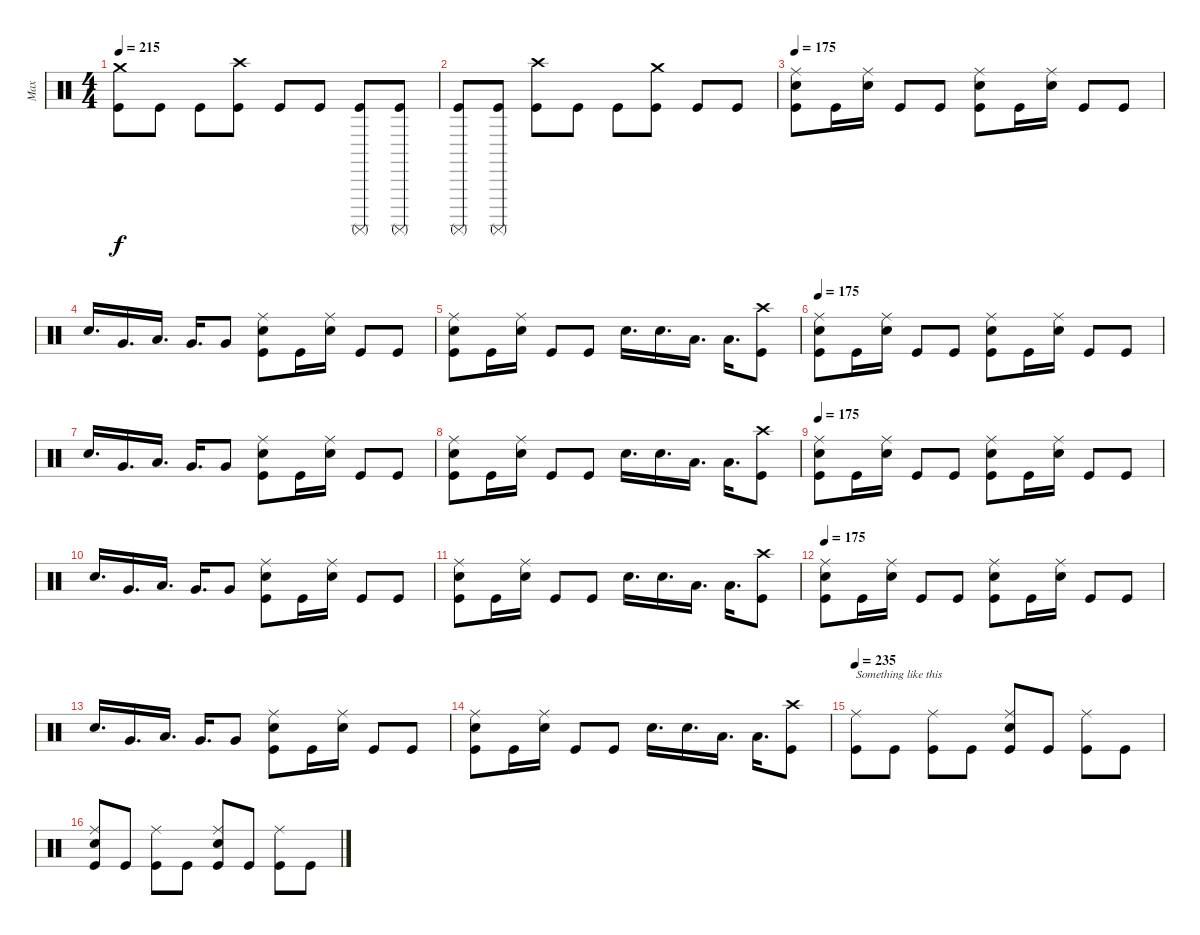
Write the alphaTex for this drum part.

\track ("Max" "Max") {instrument percussion}
\staff {score}
\articulation defaults
\ts (4 4)
\tempo 215
\clef neutral
\ks c
("Crash medium (hit)" "Kick (hit)").8{dy f} "Kick (hit)".8 "Kick (hit)".8 ("Crash high (hit)" "Kick (hit)").8 "Kick (hit)".8 "Kick (hit)".8 ("Surdo (mute)" "Kick (hit)").8 ("Surdo (mute)" "Kick (hit)").8 |
("Surdo (mute)" "Kick (hit)").8 ("Surdo (mute)" "Kick (hit)").8 ("Crash high (hit)" "Kick (hit)").8 "Kick (hit)".8 "Kick (hit)".8 ("Crash medium (hit)" "Kick (hit)").8 "Kick (hit)".8 "Kick (hit)".8 |
\tempo 175
("Ride (middle)" "Electric Snare (hit)" "Kick (hit)").8 "Kick (hit)".16 ("Ride (middle)" "Electric Snare (hit)").16 "Kick (hit)".8 "Kick (hit)".8 ("Ride (middle)" "Electric Snare (hit)" "Kick (hit)").8 "Kick (hit)".16 ("Ride (middle)" "Electric Snare (hit)").16 "Kick (hit)".8 "Kick (hit)".8 |
"Electric Snare (hit)".16{d} "Very Low Tom (hit)".16{d} "Low Tom (hit)".16{d} "Very Low Tom (hit)".16{d} "Very Low Tom (hit)".8 ("Ride (middle)" "Electric Snare (hit)" "Kick (hit)").8 "Kick (hit)".16 ("Ride (middle)" "Electric Snare (hit)").16 "Kick (hit)".8 "Kick (hit)".8 |
("Ride (middle)" "Electric Snare (hit)" "Kick (hit)").8 "Kick (hit)".16 ("Ride (middle)" "Electric Snare (hit)").16 "Kick (hit)".8 "Kick (hit)".8 "Electric Snare (hit)".16{d} "Electric Snare (hit)".16{d} "Low Tom (hit)".16{d} "Low Tom (hit)".16{d} ("Crash high (hit)" "Kick (hit)").8 |
\tempo 175
("Ride (middle)" "Electric Snare (hit)" "Kick (hit)").8 "Kick (hit)".16 ("Ride (middle)" "Electric Snare (hit)").16 "Kick (hit)".8 "Kick (hit)".8 ("Ride (middle)" "Electric Snare (hit)" "Kick (hit)").8 "Kick (hit)".16 ("Ride (middle)" "Electric Snare (hit)").16 "Kick (hit)".8 "Kick (hit)".8 |
"Electric Snare (hit)".16{d} "Very Low Tom (hit)".16{d} "Low Tom (hit)".16{d} "Very Low Tom (hit)".16{d} "Very Low Tom (hit)".8 ("Ride (middle)" "Electric Snare (hit)" "Kick (hit)").8 "Kick (hit)".16 ("Ride (middle)" "Electric Snare (hit)").16 "Kick (hit)".8 "Kick (hit)".8 |
("Ride (middle)" "Electric Snare (hit)" "Kick (hit)").8 "Kick (hit)".16 ("Ride (middle)" "Electric Snare (hit)").16 "Kick (hit)".8 "Kick (hit)".8 "Electric Snare (hit)".16{d} "Electric Snare (hit)".16{d} "Low Tom (hit)".16{d} "Low Tom (hit)".16{d} ("Crash high (hit)" "Kick (hit)").8 |
\tempo 175
("Ride (middle)" "Electric Snare (hit)" "Kick (hit)").8 "Kick (hit)".16 ("Ride (middle)" "Electric Snare (hit)").16 "Kick (hit)".8 "Kick (hit)".8 ("Ride (middle)" "Electric Snare (hit)" "Kick (hit)").8 "Kick (hit)".16 ("Ride (middle)" "Electric Snare (hit)").16 "Kick (hit)".8 "Kick (hit)".8 |
"Electric Snare (hit)".16{d} "Very Low Tom (hit)".16{d} "Low Tom (hit)".16{d} "Very Low Tom (hit)".16{d} "Very Low Tom (hit)".8 ("Ride (middle)" "Electric Snare (hit)" "Kick (hit)").8 "Kick (hit)".16 ("Ride (middle)" "Electric Snare (hit)").16 "Kick (hit)".8 "Kick (hit)".8 |
("Ride (middle)" "Electric Snare (hit)" "Kick (hit)").8 "Kick (hit)".16 ("Ride (middle)" "Electric Snare (hit)").16 "Kick (hit)".8 "Kick (hit)".8 "Electric Snare (hit)".16{d} "Electric Snare (hit)".16{d} "Low Tom (hit)".16{d} "Low Tom (hit)".16{d} ("Crash high (hit)" "Kick (hit)").8 |
\tempo 175
("Ride (middle)" "Electric Snare (hit)" "Kick (hit)").8 "Kick (hit)".16 ("Ride (middle)" "Electric Snare (hit)").16 "Kick (hit)".8 "Kick (hit)".8 ("Ride (middle)" "Electric Snare (hit)" "Kick (hit)").8 "Kick (hit)".16 ("Ride (middle)" "Electric Snare (hit)").16 "Kick (hit)".8 "Kick (hit)".8 |
"Electric Snare (hit)".16{d} "Very Low Tom (hit)".16{d} "Low Tom (hit)".16{d} "Very Low Tom (hit)".16{d} "Very Low Tom (hit)".8 ("Ride (middle)" "Electric Snare (hit)" "Kick (hit)").8 "Kick (hit)".16 ("Ride (middle)" "Electric Snare (hit)").16 "Kick (hit)".8 "Kick (hit)".8 |
("Ride (middle)" "Electric Snare (hit)" "Kick (hit)").8 "Kick (hit)".16 ("Ride (middle)" "Electric Snare (hit)").16 "Kick (hit)".8 "Kick (hit)".8 "Electric Snare (hit)".16{d} "Electric Snare (hit)".16{d} "Low Tom (hit)".16{d} "Low Tom (hit)".16{d} ("Crash high (hit)" "Kick (hit)").8 |
\tempo 235
("Ride (middle)" "Kick (hit)").8{txt "Something like this"} "Kick (hit)".8 ("Ride (middle)" "Kick (hit)").8 "Kick (hit)".8 ("Ride (middle)" "Electric Snare (hit)" "Kick (hit)").8 "Kick (hit)".8 ("Ride (middle)" "Kick (hit)").8 "Kick (hit)".8 |
("Ride (middle)" "Electric Snare (hit)" "Kick (hit)").8 "Kick (hit)".8 ("Ride (middle)" "Kick (hit)").8 "Kick (hit)".8 ("Ride (middle)" "Electric Snare (hit)" "Kick (hit)").8 "Kick (hit)".8 ("Ride (middle)" "Kick (hit)").8 "Kick (hit)".8
